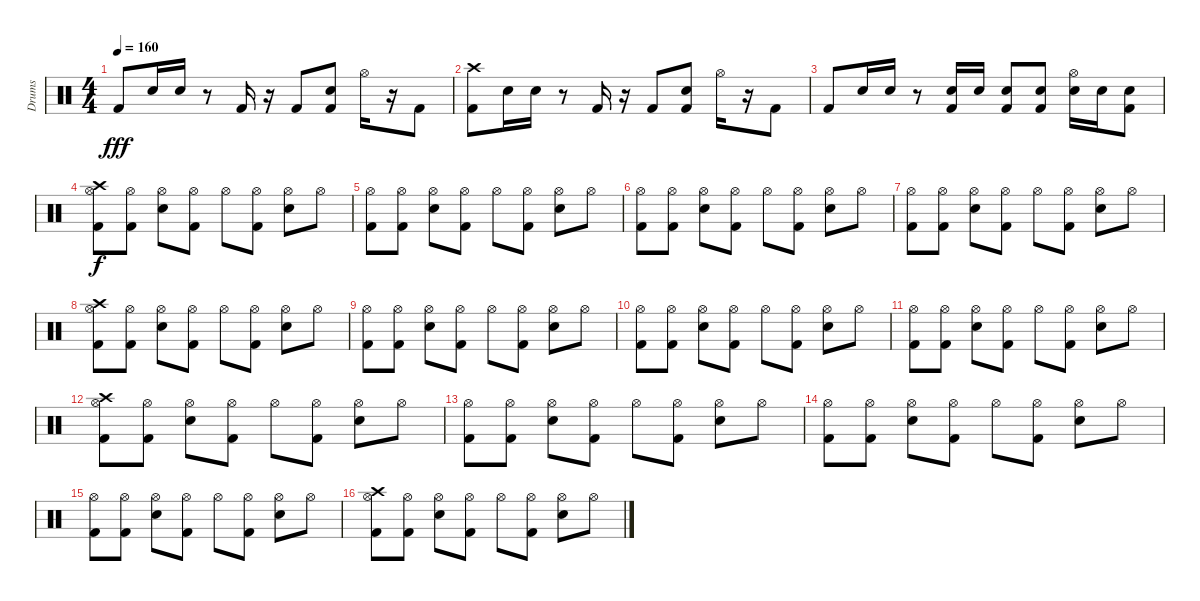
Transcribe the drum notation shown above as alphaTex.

\track ("Drums" "Drums") {instrument percussion}
\staff {score}
\articulation defaults
\ts (4 4)
\tempo 160
\clef neutral
\ks c "Kick (hit) 2".8{dy fff} "Electric Snare (hit)".16 "Electric Snare (hit)".16
r.8 "Kick (hit) 2".16 r.16 "Kick (hit) 2".8 ("Kick (hit) 2" "Electric Snare (hit)").8 "Hi-Hat (open)".16 r.16 "Kick (hit) 2".8 |
("Kick (hit) 2" "Crash high (hit)").8 "Electric Snare (hit)".16 "Electric Snare (hit)".16 r.8 "Kick (hit) 2".16 r.16 "Kick (hit) 2".8 ("Kick (hit) 2" "Electric Snare (hit)").8 "Hi-Hat (open)".16 r.16 "Kick (hit) 2".8 |
"Kick (hit) 2".8 "Electric Snare (hit)".16 "Electric Snare (hit)".16 r.8 ("Kick (hit) 2" "Electric Snare (hit)").16 "Electric Snare (hit)".16 ("Kick (hit) 2" "Electric Snare (hit)").8 ("Kick (hit) 2" "Electric Snare (hit)").8 ("Hi-Hat (open)" "Electric Snare (hit)").16 "Electric Snare (hit)".16 ("Kick (hit) 2" "Electric Snare (hit)").8 |
("Kick (hit) 2" "Crash high (hit)" "Hi-Hat (open)").8{dy f} ("Kick (hit) 2" "Hi-Hat (open)").8 ("Electric Snare (hit)" "Hi-Hat (open)").8 ("Kick (hit) 2" "Hi-Hat (open)").8 "Hi-Hat (open)".8 ("Kick (hit) 2" "Hi-Hat (open)").8 ("Electric Snare (hit)" "Hi-Hat (open)").8 "Hi-Hat (open)".8 |
("Kick (hit) 2" "Hi-Hat (open)").8 ("Kick (hit) 2" "Hi-Hat (open)").8 ("Electric Snare (hit)" "Hi-Hat (open)").8 ("Kick (hit) 2" "Hi-Hat (open)").8 "Hi-Hat (open)".8 ("Kick (hit) 2" "Hi-Hat (open)").8 ("Electric Snare (hit)" "Hi-Hat (open)").8 "Hi-Hat (open)".8 |
("Kick (hit) 2" "Hi-Hat (open)").8 ("Kick (hit) 2" "Hi-Hat (open)").8 ("Electric Snare (hit)" "Hi-Hat (open)").8 ("Kick (hit) 2" "Hi-Hat (open)").8 "Hi-Hat (open)".8 ("Kick (hit) 2" "Hi-Hat (open)").8 ("Electric Snare (hit)" "Hi-Hat (open)").8 "Hi-Hat (open)".8 |
("Kick (hit) 2" "Hi-Hat (open)").8 ("Kick (hit) 2" "Hi-Hat (open)").8 ("Electric Snare (hit)" "Hi-Hat (open)").8 ("Kick (hit) 2" "Hi-Hat (open)").8 "Hi-Hat (open)".8 ("Kick (hit) 2" "Hi-Hat (open)").8 ("Electric Snare (hit)" "Hi-Hat (open)").8 "Hi-Hat (open)".8 |
("Kick (hit) 2" "Crash high (hit)" "Hi-Hat (open)").8 ("Kick (hit) 2" "Hi-Hat (open)").8 ("Electric Snare (hit)" "Hi-Hat (open)").8 ("Kick (hit) 2" "Hi-Hat (open)").8 "Hi-Hat (open)".8 ("Kick (hit) 2" "Hi-Hat (open)").8 ("Electric Snare (hit)" "Hi-Hat (open)").8 "Hi-Hat (open)".8 |
("Kick (hit) 2" "Hi-Hat (open)").8 ("Kick (hit) 2" "Hi-Hat (open)").8 ("Electric Snare (hit)" "Hi-Hat (open)").8 ("Kick (hit) 2" "Hi-Hat (open)").8 "Hi-Hat (open)".8 ("Kick (hit) 2" "Hi-Hat (open)").8 ("Electric Snare (hit)" "Hi-Hat (open)").8 "Hi-Hat (open)".8 |
("Kick (hit) 2" "Hi-Hat (open)").8 ("Kick (hit) 2" "Hi-Hat (open)").8 ("Electric Snare (hit)" "Hi-Hat (open)").8 ("Kick (hit) 2" "Hi-Hat (open)").8 "Hi-Hat (open)".8 ("Kick (hit) 2" "Hi-Hat (open)").8 ("Electric Snare (hit)" "Hi-Hat (open)").8 "Hi-Hat (open)".8 |
("Kick (hit) 2" "Hi-Hat (open)").8 ("Kick (hit) 2" "Hi-Hat (open)").8 ("Electric Snare (hit)" "Hi-Hat (open)").8 ("Kick (hit) 2" "Hi-Hat (open)").8 "Hi-Hat (open)".8 ("Kick (hit) 2" "Hi-Hat (open)").8 ("Electric Snare (hit)" "Hi-Hat (open)").8 "Hi-Hat (open)".8 |
("Kick (hit) 2" "Crash high (hit)" "Hi-Hat (open)").8 ("Kick (hit) 2" "Hi-Hat (open)").8 ("Electric Snare (hit)" "Hi-Hat (open)").8 ("Kick (hit) 2" "Hi-Hat (open)").8 "Hi-Hat (open)".8 ("Kick (hit) 2" "Hi-Hat (open)").8 ("Electric Snare (hit)" "Hi-Hat (open)").8 "Hi-Hat (open)".8 |
("Kick (hit) 2" "Hi-Hat (open)").8 ("Kick (hit) 2" "Hi-Hat (open)").8 ("Electric Snare (hit)" "Hi-Hat (open)").8 ("Kick (hit) 2" "Hi-Hat (open)").8 "Hi-Hat (open)".8 ("Kick (hit) 2" "Hi-Hat (open)").8 ("Electric Snare (hit)" "Hi-Hat (open)").8 "Hi-Hat (open)".8 |
("Kick (hit) 2" "Hi-Hat (open)").8 ("Kick (hit) 2" "Hi-Hat (open)").8 ("Electric Snare (hit)" "Hi-Hat (open)").8 ("Kick (hit) 2" "Hi-Hat (open)").8 "Hi-Hat (open)".8 ("Kick (hit) 2" "Hi-Hat (open)").8 ("Electric Snare (hit)" "Hi-Hat (open)").8 "Hi-Hat (open)".8 |
("Kick (hit) 2" "Hi-Hat (open)").8 ("Kick (hit) 2" "Hi-Hat (open)").8 ("Electric Snare (hit)" "Hi-Hat (open)").8 ("Kick (hit) 2" "Hi-Hat (open)").8 "Hi-Hat (open)".8 ("Kick (hit) 2" "Hi-Hat (open)").8 ("Electric Snare (hit)" "Hi-Hat (open)").8 "Hi-Hat (open)".8 |
("Kick (hit) 2" "Crash high (hit)" "Hi-Hat (open)").8 ("Kick (hit) 2" "Hi-Hat (open)").8 ("Electric Snare (hit)" "Hi-Hat (open)").8 ("Kick (hit) 2" "Hi-Hat (open)").8 "Hi-Hat (open)".8 ("Kick (hit) 2" "Hi-Hat (open)").8 ("Electric Snare (hit)" "Hi-Hat (open)").8 "Hi-Hat (open)".8
